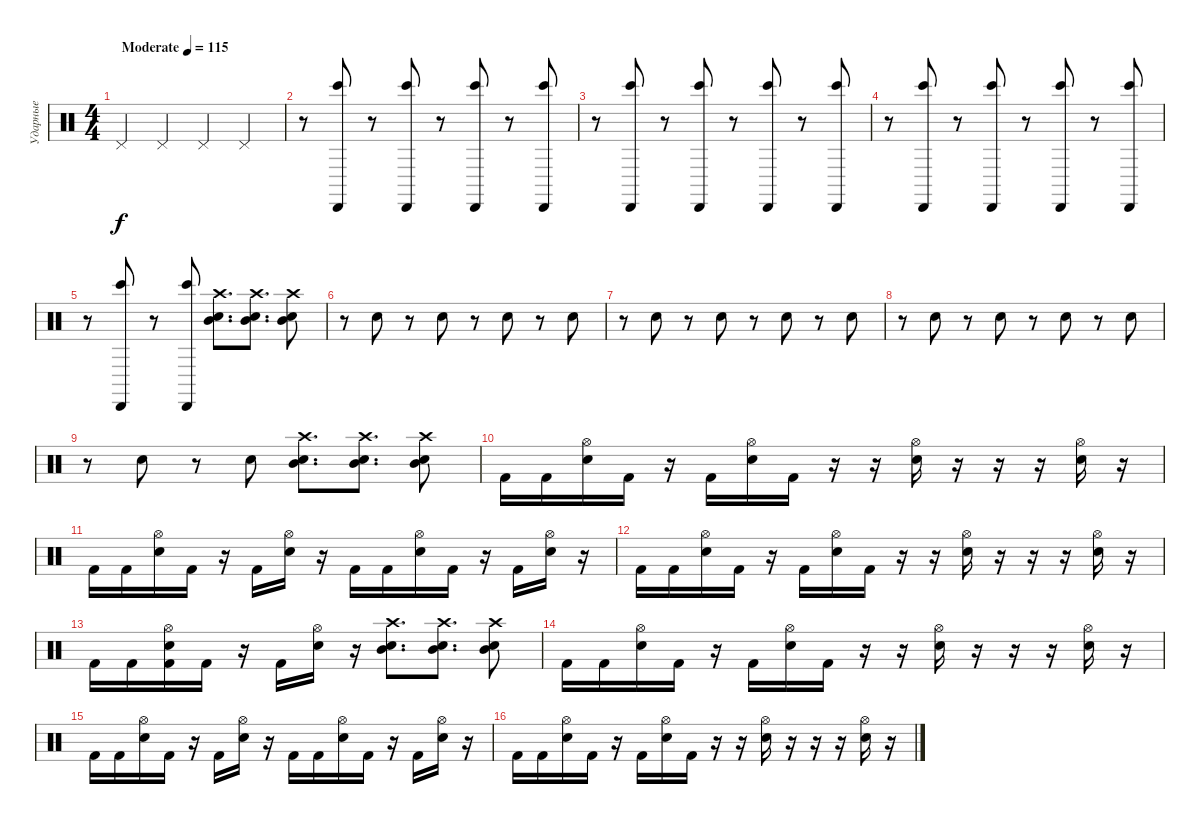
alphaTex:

\track ("Ударные" "Ударные") {instrument percussion}
\staff {score}
\articulation defaults
\ts (4 4)
\tempo (115 "Moderate")
\clef neutral
\ks c "Pedal Hi-Hat (hit)".4{dy f} "Pedal Hi-Hat (hit)".4 "Pedal Hi-Hat (hit)".4 "Pedal Hi-Hat (hit)".4
|
r.8 ("Bongo High (hit)" "Cabasa (hit)").8 r.8 ("Bongo High (hit)" "Cabasa (hit)").8 r.8 ("Bongo High (hit)" "Cabasa (hit)").8 r.8 ("Bongo High (hit)" "Cabasa (hit)").8 |
r.8 ("Bongo High (hit)" "Cabasa (hit)").8 r.8 ("Bongo High (hit)" "Cabasa (hit)").8 r.8 ("Bongo High (hit)" "Cabasa (hit)").8 r.8 ("Bongo High (hit)" "Cabasa (hit)").8 |
r.8 ("Bongo High (hit)" "Cabasa (hit)").8 r.8 ("Bongo High (hit)" "Cabasa (hit)").8 r.8 ("Bongo High (hit)" "Cabasa (hit)").8 r.8 ("Bongo High (hit)" "Cabasa (hit)").8 |
r.8 ("Bongo High (hit)" "Cabasa (hit)").8 r.8 ("Bongo High (hit)" "Cabasa (hit)").8 ("Snare (hit) 2" "Mid Tom (hit)" "Crash high (hit)").8{d} ("Snare (hit) 2" "Mid Tom (hit)" "Crash high (hit)").8{d} ("Snare (hit) 2" "Mid Tom (hit)" "Crash high (hit)").8 |
r.8 "Snare (hit) 2".8 r.8 "Snare (hit) 2".8 r.8 "Snare (hit) 2".8 r.8 "Snare (hit) 2".8 |
r.8 "Snare (hit) 2".8 r.8 "Snare (hit) 2".8 r.8 "Snare (hit) 2".8 r.8 "Snare (hit) 2".8 |
r.8 "Snare (hit) 2".8 r.8 "Snare (hit) 2".8 r.8 "Snare (hit) 2".8 r.8 "Snare (hit) 2".8 |
r.8 "Snare (hit) 2".8 r.8 "Snare (hit) 2".8 ("Snare (hit) 2" "Mid Tom (hit)" "Crash high (hit)").8{d} ("Snare (hit) 2" "Mid Tom (hit)" "Crash high (hit)").8{d} ("Snare (hit) 2" "Mid Tom (hit)" "Crash high (hit)").8 |
"Kick (hit) 2".16 "Kick (hit) 2".16 ("Snare (hit) 2" "Hi-Hat (open)").16 "Kick (hit) 2".16 r.16 "Kick (hit) 2".16 ("Snare (hit) 2" "Hi-Hat (open)").16 "Kick (hit) 2".16 r.16 r.16 ("Snare (hit) 2" "Hi-Hat (open)").16 r.16 r.16 r.16 ("Snare (hit) 2" "Hi-Hat (open)").16 r.16 |
"Kick (hit) 2".16 "Kick (hit) 2".16 ("Snare (hit) 2" "Hi-Hat (open)").16 "Kick (hit) 2".16 r.16 "Kick (hit) 2".16 ("Snare (hit) 2" "Hi-Hat (open)").16 r.16 "Kick (hit) 2".16 "Kick (hit) 2".16 ("Snare (hit) 2" "Hi-Hat (open)").16 "Kick (hit) 2".16 r.16 "Kick (hit) 2".16 ("Snare (hit) 2" "Hi-Hat (open)").16 r.16 |
"Kick (hit) 2".16 "Kick (hit) 2".16 ("Snare (hit) 2" "Hi-Hat (open)").16 "Kick (hit) 2".16 r.16 "Kick (hit) 2".16 ("Snare (hit) 2" "Hi-Hat (open)").16 "Kick (hit) 2".16 r.16 r.16 ("Snare (hit) 2" "Hi-Hat (open)").16 r.16 r.16 r.16 ("Snare (hit) 2" "Hi-Hat (open)").16 r.16 |
"Kick (hit) 2".16 "Kick (hit) 2".16 ("Kick (hit) 2" "Snare (hit) 2" "Hi-Hat (open)").16 "Kick (hit) 2".16 r.16 "Kick (hit) 2".16 ("Snare (hit) 2" "Hi-Hat (open)").16 r.16 ("Snare (hit) 2" "Mid Tom (hit)" "Crash high (hit)").8{d} ("Snare (hit) 2" "Mid Tom (hit)" "Crash high (hit)").8{d} ("Snare (hit) 2" "Mid Tom (hit)" "Crash high (hit)").8 |
"Kick (hit) 2".16 "Kick (hit) 2".16 ("Snare (hit) 2" "Hi-Hat (open)").16 "Kick (hit) 2".16 r.16 "Kick (hit) 2".16 ("Snare (hit) 2" "Hi-Hat (open)").16 "Kick (hit) 2".16 r.16 r.16 ("Snare (hit) 2" "Hi-Hat (open)").16 r.16 r.16 r.16 ("Snare (hit) 2" "Hi-Hat (open)").16 r.16 |
"Kick (hit) 2".16 "Kick (hit) 2".16 ("Snare (hit) 2" "Hi-Hat (open)").16 "Kick (hit) 2".16 r.16 "Kick (hit) 2".16 ("Snare (hit) 2" "Hi-Hat (open)").16 r.16 "Kick (hit) 2".16 "Kick (hit) 2".16 ("Snare (hit) 2" "Hi-Hat (open)").16 "Kick (hit) 2".16 r.16 "Kick (hit) 2".16 ("Snare (hit) 2" "Hi-Hat (open)").16 r.16 |
"Kick (hit) 2".16 "Kick (hit) 2".16 ("Snare (hit) 2" "Hi-Hat (open)").16 "Kick (hit) 2".16 r.16 "Kick (hit) 2".16 ("Snare (hit) 2" "Hi-Hat (open)").16 "Kick (hit) 2".16 r.16 r.16 ("Snare (hit) 2" "Hi-Hat (open)").16 r.16 r.16 r.16 ("Snare (hit) 2" "Hi-Hat (open)").16 r.16
